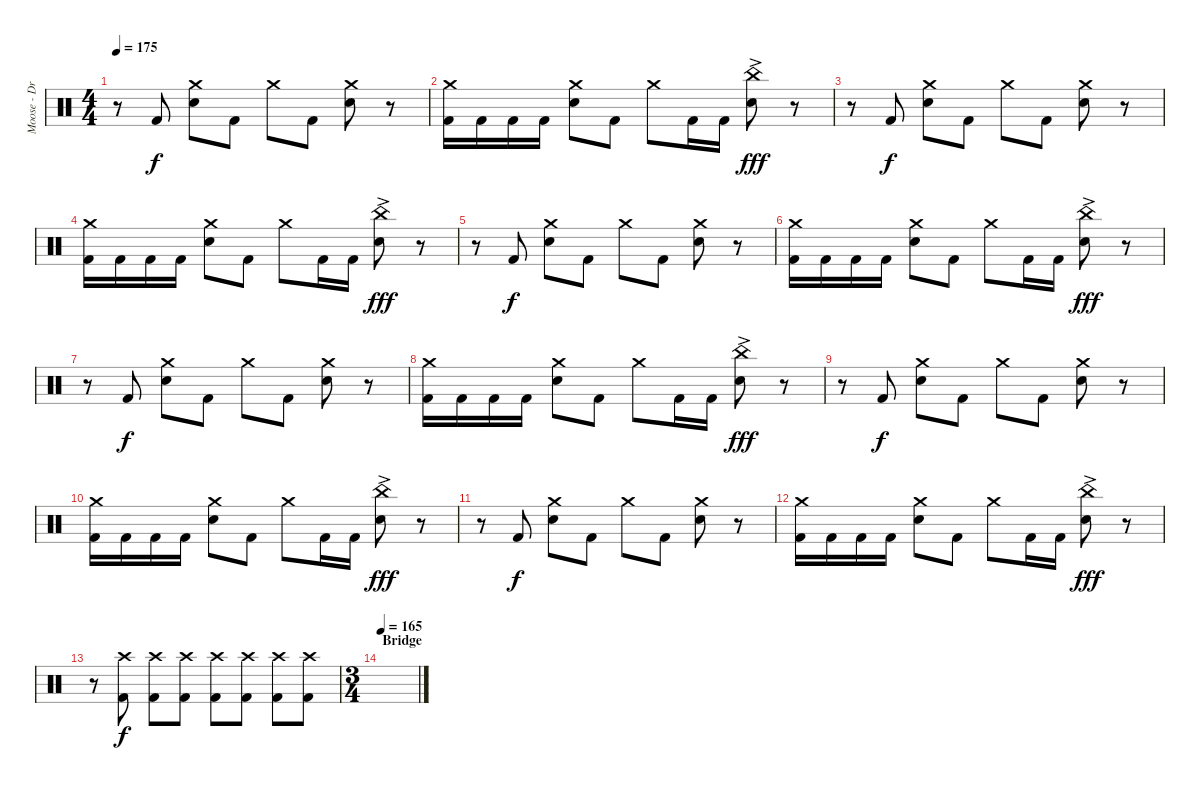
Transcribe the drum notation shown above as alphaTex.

\track ("Moose - Drums" "Moose - Dr") {instrument percussion}
\staff {score}
\articulation defaults
\ts (4 4)
\tempo 175
\clef neutral
\ks c
r.8{dy fff} "Kick (hit) 2".8{dy f} ("Crash medium (hit)" "Electric Snare (hit)").8 "Kick (hit) 2".8 "Crash medium (hit)".8 "Kick (hit) 2".8 ("Crash medium (hit)" "Electric Snare (hit)").8 r.8 |
("Crash medium (hit)" "Kick (hit) 2").16 "Kick (hit) 2".16 "Kick (hit) 2".16 "Kick (hit) 2".16 ("Crash medium (hit)" "Electric Snare (hit)").8 "Kick (hit) 2".8 "Crash medium (hit)".8 "Kick (hit) 2".16 "Kick (hit) 2".16 ("China (hit)"{ac} "Electric Snare (hit)").8{dy fff} r.8 |
r.8 "Kick (hit) 2".8{dy f} ("Crash medium (hit)" "Electric Snare (hit)").8 "Kick (hit) 2".8 "Crash medium (hit)".8 "Kick (hit) 2".8 ("Crash medium (hit)" "Electric Snare (hit)").8 r.8 |
("Crash medium (hit)" "Kick (hit) 2").16 "Kick (hit) 2".16 "Kick (hit) 2".16 "Kick (hit) 2".16 ("Crash medium (hit)" "Electric Snare (hit)").8 "Kick (hit) 2".8 "Crash medium (hit)".8 "Kick (hit) 2".16 "Kick (hit) 2".16 ("China (hit)"{ac} "Electric Snare (hit)").8{dy fff} r.8 |
r.8 "Kick (hit) 2".8{dy f} ("Crash medium (hit)" "Electric Snare (hit)").8 "Kick (hit) 2".8 "Crash medium (hit)".8 "Kick (hit) 2".8 ("Crash medium (hit)" "Electric Snare (hit)").8 r.8 |
("Crash medium (hit)" "Kick (hit) 2").16 "Kick (hit) 2".16 "Kick (hit) 2".16 "Kick (hit) 2".16 ("Crash medium (hit)" "Electric Snare (hit)").8 "Kick (hit) 2".8 "Crash medium (hit)".8 "Kick (hit) 2".16 "Kick (hit) 2".16 ("China (hit)"{ac} "Electric Snare (hit)").8{dy fff} r.8 |
r.8 "Kick (hit) 2".8{dy f} ("Crash medium (hit)" "Electric Snare (hit)").8 "Kick (hit) 2".8 "Crash medium (hit)".8 "Kick (hit) 2".8 ("Crash medium (hit)" "Electric Snare (hit)").8 r.8 |
("Crash medium (hit)" "Kick (hit) 2").16 "Kick (hit) 2".16 "Kick (hit) 2".16 "Kick (hit) 2".16 ("Crash medium (hit)" "Electric Snare (hit)").8 "Kick (hit) 2".8 "Crash medium (hit)".8 "Kick (hit) 2".16 "Kick (hit) 2".16 ("China (hit)"{ac} "Electric Snare (hit)").8{dy fff} r.8 |
r.8 "Kick (hit) 2".8{dy f} ("Crash medium (hit)" "Electric Snare (hit)").8 "Kick (hit) 2".8 "Crash medium (hit)".8 "Kick (hit) 2".8 ("Crash medium (hit)" "Electric Snare (hit)").8 r.8 |
("Crash medium (hit)" "Kick (hit) 2").16 "Kick (hit) 2".16 "Kick (hit) 2".16 "Kick (hit) 2".16 ("Crash medium (hit)" "Electric Snare (hit)").8 "Kick (hit) 2".8 "Crash medium (hit)".8 "Kick (hit) 2".16 "Kick (hit) 2".16 ("China (hit)"{ac} "Electric Snare (hit)").8{dy fff} r.8 |
r.8 "Kick (hit) 2".8{dy f} ("Crash medium (hit)" "Electric Snare (hit)").8 "Kick (hit) 2".8 "Crash medium (hit)".8 "Kick (hit) 2".8 ("Crash medium (hit)" "Electric Snare (hit)").8 r.8 |
("Crash medium (hit)" "Kick (hit) 2").16 "Kick (hit) 2".16 "Kick (hit) 2".16 "Kick (hit) 2".16 ("Crash medium (hit)" "Electric Snare (hit)").8 "Kick (hit) 2".8 "Crash medium (hit)".8 "Kick (hit) 2".16 "Kick (hit) 2".16 ("China (hit)"{ac} "Electric Snare (hit)").8{dy fff} r.8 |
r.8 ("Crash high (hit)" "Kick (hit) 2").8{dy f} ("Crash high (hit)" "Kick (hit) 2").8 ("Crash high (hit)" "Kick (hit) 2").8 ("Crash high (hit)" "Kick (hit) 2").8 ("Crash high (hit)" "Kick (hit) 2").8 ("Crash high (hit)" "Kick (hit) 2").8 ("Crash high (hit)" "Kick (hit) 2").8 |
\ts (3 4)
\section ("" "Bridge")
\tempo 165
